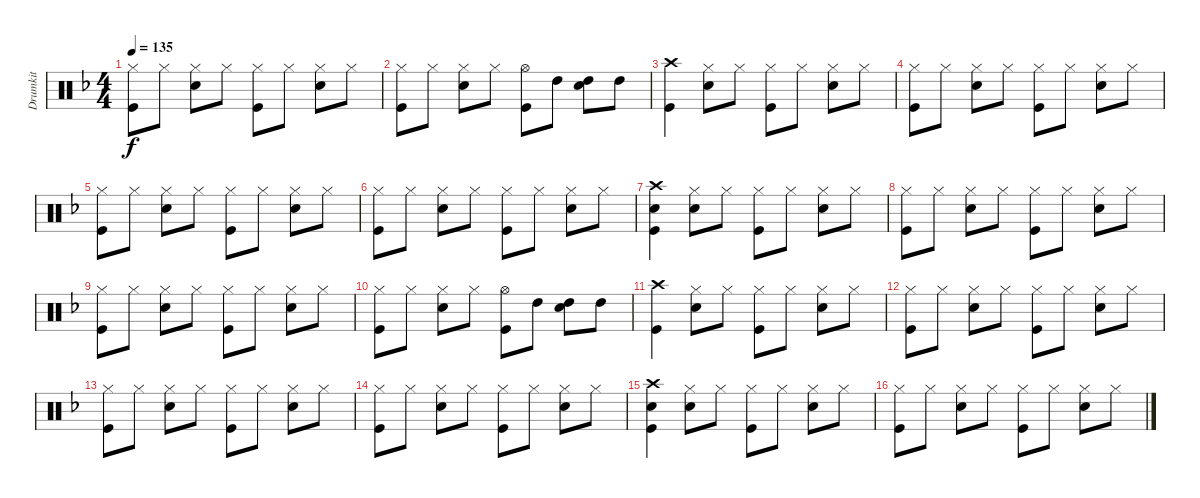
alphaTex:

\track ("Drumkit" "Drumkit") {instrument percussion}
\staff {score}
\articulation defaults
\ts (4 4)
\tempo 135
\clef neutral
\ks f
("Hi-Hat (closed)" "Kick (hit)").8{dy f} "Hi-Hat (closed)".8 ("Hi-Hat (closed)" "Snare (hit) 2").8 "Hi-Hat (closed)".8 ("Hi-Hat (closed)" "Kick (hit)").8 "Hi-Hat (closed)".8 ("Hi-Hat (closed)" "Snare (hit) 2").8 "Hi-Hat (closed)".8 |
("Hi-Hat (closed)" "Kick (hit)").8 "Hi-Hat (closed)".8 ("Hi-Hat (closed)" "Snare (hit) 2").8 "Hi-Hat (closed)".8 ("Hi-Hat (open)" "Kick (hit)").8 "High Tom (hit)".8 ("High Tom (hit)" "Snare (hit) 2").8 "High Tom (hit)".8 |
("Crash high (hit)" "Kick (hit)").4 ("Hi-Hat (closed)" "Snare (hit) 2").8 "Hi-Hat (closed)".8 ("Hi-Hat (closed)" "Kick (hit)").8 "Hi-Hat (closed)".8 ("Hi-Hat (closed)" "Snare (hit) 2").8 "Hi-Hat (closed)".8 |
("Hi-Hat (closed)" "Kick (hit)").8 "Hi-Hat (closed)".8 ("Hi-Hat (closed)" "Snare (hit) 2").8 "Hi-Hat (closed)".8 ("Hi-Hat (closed)" "Kick (hit)").8 "Hi-Hat (closed)".8 ("Hi-Hat (closed)" "Snare (hit) 2").8 "Hi-Hat (closed)".8 |
("Hi-Hat (closed)" "Kick (hit)").8 "Hi-Hat (closed)".8 ("Hi-Hat (closed)" "Snare (hit) 2").8 "Hi-Hat (closed)".8 ("Hi-Hat (closed)" "Kick (hit)").8 "Hi-Hat (closed)".8 ("Hi-Hat (closed)" "Snare (hit) 2").8 "Hi-Hat (closed)".8 |
("Hi-Hat (closed)" "Kick (hit)").8 "Hi-Hat (closed)".8 ("Hi-Hat (closed)" "Snare (hit) 2").8 "Hi-Hat (closed)".8 ("Hi-Hat (closed)" "Kick (hit)").8 "Hi-Hat (closed)".8 ("Hi-Hat (closed)" "Snare (hit) 2").8 "Hi-Hat (closed)".8 |
("Crash high (hit)" "Snare (hit) 2" "Kick (hit)").4 ("Hi-Hat (closed)" "Snare (hit) 2").8 "Hi-Hat (closed)".8 ("Hi-Hat (closed)" "Kick (hit)").8 "Hi-Hat (closed)".8 ("Hi-Hat (closed)" "Snare (hit) 2").8 "Hi-Hat (closed)".8 |
("Hi-Hat (closed)" "Kick (hit)").8 "Hi-Hat (closed)".8 ("Hi-Hat (closed)" "Snare (hit) 2").8 "Hi-Hat (closed)".8 ("Hi-Hat (closed)" "Kick (hit)").8 "Hi-Hat (closed)".8 ("Hi-Hat (closed)" "Snare (hit) 2").8 "Hi-Hat (closed)".8 |
("Hi-Hat (closed)" "Kick (hit)").8 "Hi-Hat (closed)".8 ("Hi-Hat (closed)" "Snare (hit) 2").8 "Hi-Hat (closed)".8 ("Hi-Hat (closed)" "Kick (hit)").8 "Hi-Hat (closed)".8 ("Hi-Hat (closed)" "Snare (hit) 2").8 "Hi-Hat (closed)".8 |
("Hi-Hat (closed)" "Kick (hit)").8 "Hi-Hat (closed)".8 ("Hi-Hat (closed)" "Snare (hit) 2").8 "Hi-Hat (closed)".8 ("Hi-Hat (open)" "Kick (hit)").8 "High Tom (hit)".8 ("High Tom (hit)" "Snare (hit) 2").8 "High Tom (hit)".8 |
("Crash high (hit)" "Kick (hit)").4 ("Hi-Hat (closed)" "Snare (hit) 2").8 "Hi-Hat (closed)".8 ("Hi-Hat (closed)" "Kick (hit)").8 "Hi-Hat (closed)".8 ("Hi-Hat (closed)" "Snare (hit) 2").8 "Hi-Hat (closed)".8 |
("Hi-Hat (closed)" "Kick (hit)").8 "Hi-Hat (closed)".8 ("Hi-Hat (closed)" "Snare (hit) 2").8 "Hi-Hat (closed)".8 ("Hi-Hat (closed)" "Kick (hit)").8 "Hi-Hat (closed)".8 ("Hi-Hat (closed)" "Snare (hit) 2").8 "Hi-Hat (closed)".8 |
("Hi-Hat (closed)" "Kick (hit)").8 "Hi-Hat (closed)".8 ("Hi-Hat (closed)" "Snare (hit) 2").8 "Hi-Hat (closed)".8 ("Hi-Hat (closed)" "Kick (hit)").8 "Hi-Hat (closed)".8 ("Hi-Hat (closed)" "Snare (hit) 2").8 "Hi-Hat (closed)".8 |
("Hi-Hat (closed)" "Kick (hit)").8 "Hi-Hat (closed)".8 ("Hi-Hat (closed)" "Snare (hit) 2").8 "Hi-Hat (closed)".8 ("Hi-Hat (closed)" "Kick (hit)").8 "Hi-Hat (closed)".8 ("Hi-Hat (closed)" "Snare (hit) 2").8 "Hi-Hat (closed)".8 |
("Crash high (hit)" "Snare (hit) 2" "Kick (hit)").4 ("Hi-Hat (closed)" "Snare (hit) 2").8 "Hi-Hat (closed)".8 ("Hi-Hat (closed)" "Kick (hit)").8 "Hi-Hat (closed)".8 ("Hi-Hat (closed)" "Snare (hit) 2").8 "Hi-Hat (closed)".8 |
("Hi-Hat (closed)" "Kick (hit)").8 "Hi-Hat (closed)".8 ("Hi-Hat (closed)" "Snare (hit) 2").8 "Hi-Hat (closed)".8 ("Hi-Hat (closed)" "Kick (hit)").8 "Hi-Hat (closed)".8 ("Hi-Hat (closed)" "Snare (hit) 2").8 "Hi-Hat (closed)".8
